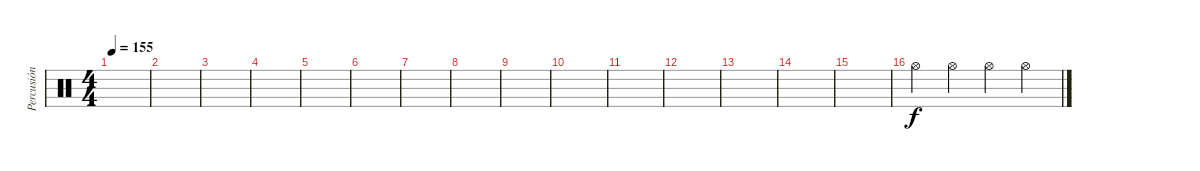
\track ("Percusión" "Percusión") {instrument percussion}
\staff {score}
\articulation defaults
\ts (4 4)
\tempo 155
\clef neutral
\ks c
|
|
|
|
|
|
|
|
|
|
|
|
|
|
|
"Hi-Hat (open)".4 "Hi-Hat (open)".4 "Hi-Hat (open)".4 "Hi-Hat (open)".4
